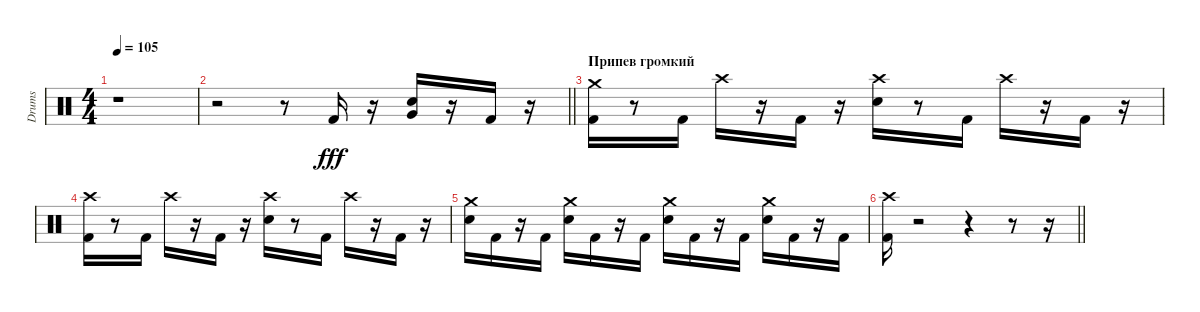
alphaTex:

\track ("Drums" "Drums") {instrument percussion}
\staff {score}
\articulation defaults
\ts (4 4)
\tempo 105
\clef neutral
\ks c
r.1{dy fff} |
\barLineRight lightlight
r.2 r.8 "Kick (hit) 2".16 r.16 ("Electric Snare (hit)" "Very Low Tom (hit)").16 r.16 "Kick (hit) 2".16 r.16 |
\section ("" "Припев громкий")
("Kick (hit) 2" "Crash medium (hit)").16 r.8 "Kick (hit) 2".16 "Crash high (hit)".16 r.16 "Kick (hit) 2".16 r.16 ("Electric Snare (hit)" "Crash high (hit)").16 r.8 "Kick (hit) 2".16 "Crash high (hit)".16 r.16 "Kick (hit) 2".16 r.16 |
("Kick (hit) 2" "Crash high (hit)").16 r.8 "Kick (hit) 2".16 "Crash high (hit)".16 r.16 "Kick (hit) 2".16 r.16 ("Electric Snare (hit)" "Crash high (hit)").16 r.8 "Kick (hit) 2".16 "Crash high (hit)".16 r.16 "Kick (hit) 2".16 r.16 |
("Electric Snare (hit)" "Crash medium (hit)").16 "Kick (hit) 2".16 r.16 "Kick (hit) 2".16 ("Electric Snare (hit)" "Crash medium (hit)").16 "Kick (hit) 2".16 r.16 "Kick (hit) 2".16 ("Electric Snare (hit)" "Crash medium (hit)").16 "Kick (hit) 2".16 r.16 "Kick (hit) 2".16 ("Electric Snare (hit)" "Crash medium (hit)").16 "Kick (hit) 2".16 r.16 "Kick (hit) 2".16 |
\barLineRight lightlight
("Kick (hit) 2" "Crash high (hit)").16 r.2 r.4 r.8 r.16
